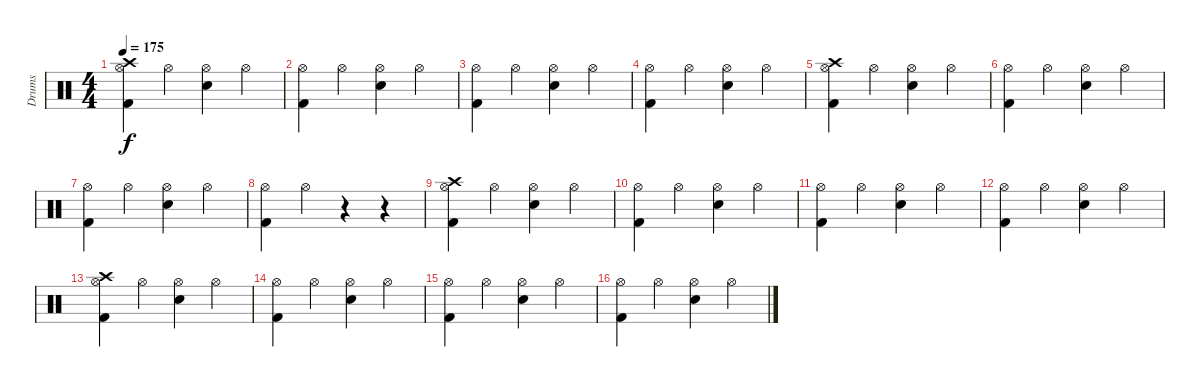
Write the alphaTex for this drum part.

\track ("Drums" "Drums") {instrument percussion}
\staff {score}
\articulation defaults
\ts (4 4)
\tempo 175
\clef neutral
\ks c
("Crash high (hit)" "Hi-Hat (open)" "Kick (hit) 2").4{dy f} "Hi-Hat (open)".4 ("Hi-Hat (open)" "Snare (hit) 2").4 "Hi-Hat (open)".4 |
("Hi-Hat (open)" "Kick (hit) 2").4 "Hi-Hat (open)".4 ("Hi-Hat (open)" "Snare (hit) 2").4 "Hi-Hat (open)".4 |
("Hi-Hat (open)" "Kick (hit) 2").4 "Hi-Hat (open)".4 ("Hi-Hat (open)" "Snare (hit) 2").4 "Hi-Hat (open)".4 |
("Hi-Hat (open)" "Kick (hit) 2").4 "Hi-Hat (open)".4 ("Hi-Hat (open)" "Snare (hit) 2").4 "Hi-Hat (open)".4 |
("Crash high (hit)" "Hi-Hat (open)" "Kick (hit) 2").4 "Hi-Hat (open)".4 ("Hi-Hat (open)" "Snare (hit) 2").4 "Hi-Hat (open)".4 |
("Hi-Hat (open)" "Kick (hit) 2").4 "Hi-Hat (open)".4 ("Hi-Hat (open)" "Snare (hit) 2").4 "Hi-Hat (open)".4 |
("Hi-Hat (open)" "Kick (hit) 2").4 "Hi-Hat (open)".4 ("Hi-Hat (open)" "Snare (hit) 2").4 "Hi-Hat (open)".4 |
("Hi-Hat (open)" "Kick (hit) 2").4 "Hi-Hat (open)".4 r.4 r.4 |
("Crash high (hit)" "Hi-Hat (open)" "Kick (hit) 2").4 "Hi-Hat (open)".4 ("Hi-Hat (open)" "Snare (hit) 2").4 "Hi-Hat (open)".4 |
("Hi-Hat (open)" "Kick (hit) 2").4 "Hi-Hat (open)".4 ("Hi-Hat (open)" "Snare (hit) 2").4 "Hi-Hat (open)".4 |
("Hi-Hat (open)" "Kick (hit) 2").4 "Hi-Hat (open)".4 ("Hi-Hat (open)" "Snare (hit) 2").4 "Hi-Hat (open)".4 |
("Hi-Hat (open)" "Kick (hit) 2").4 "Hi-Hat (open)".4 ("Hi-Hat (open)" "Snare (hit) 2").4 "Hi-Hat (open)".4 |
("Crash high (hit)" "Hi-Hat (open)" "Kick (hit) 2").4 "Hi-Hat (open)".4 ("Hi-Hat (open)" "Snare (hit) 2").4 "Hi-Hat (open)".4 |
("Hi-Hat (open)" "Kick (hit) 2").4 "Hi-Hat (open)".4 ("Hi-Hat (open)" "Snare (hit) 2").4 "Hi-Hat (open)".4 |
("Hi-Hat (open)" "Kick (hit) 2").4 "Hi-Hat (open)".4 ("Hi-Hat (open)" "Snare (hit) 2").4 "Hi-Hat (open)".4 |
("Hi-Hat (open)" "Kick (hit) 2").4 "Hi-Hat (open)".4 ("Hi-Hat (open)" "Snare (hit) 2").4 "Hi-Hat (open)".4
